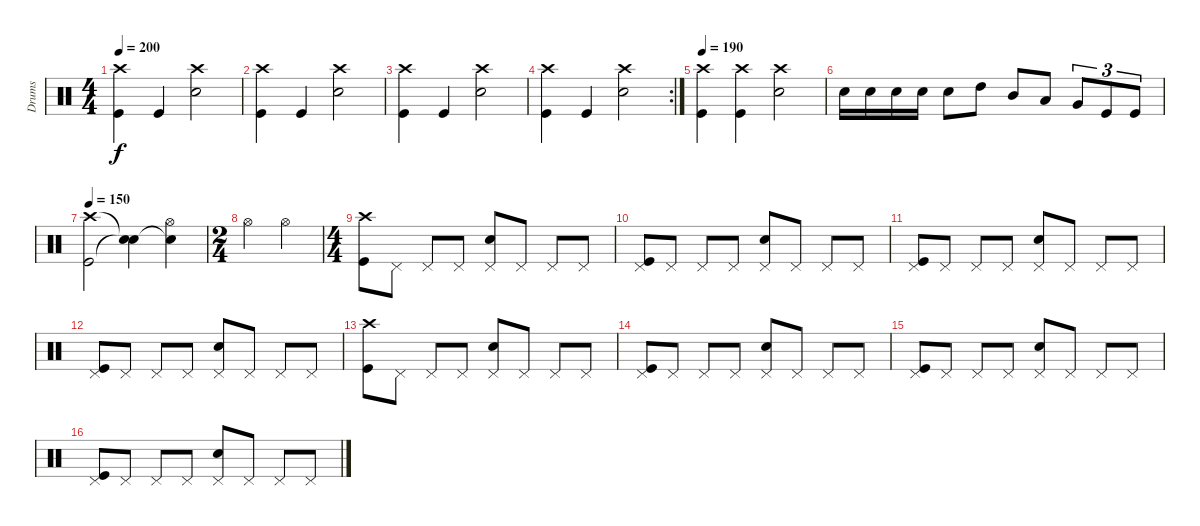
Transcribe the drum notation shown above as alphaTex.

\track ("Drums" "Drums") {instrument percussion}
\staff {score}
\articulation defaults
\ts (4 4)
\tempo 200
\clef neutral
\ks c
("Crash high (hit)" "Kick (hit)").4{dy f} "Kick (hit)".4 ("Crash high (hit)" "Snare (hit) 2").2 |
("Crash high (hit)" "Kick (hit)").4 "Kick (hit)".4 ("Crash high (hit)" "Snare (hit) 2").2 |
("Crash high (hit)" "Kick (hit)").4 "Kick (hit)".4 ("Crash high (hit)" "Snare (hit) 2").2 |
\rc 2
("Crash high (hit)" "Kick (hit)").4 "Kick (hit)".4 ("Crash high (hit)" "Snare (hit) 2").2 |
\tempo 190
("Crash high (hit)" "Kick (hit)").4 ("Crash high (hit)" "Kick (hit)").4 ("Crash high (hit)" "Snare (hit) 2").2 |
"Snare (hit) 2".16 "Snare (hit) 2".16 "Snare (hit) 2".16 "Snare (hit) 2".16 "Snare (hit) 2".8 "High Tom (hit)".8 "Mid Tom (hit)".8 "Low Tom (hit)".8 "Very Low Tom (hit)".8{tu (3 2)} "Kick (hit)".8{tu (3 2)} "Kick (hit)".8{tu (3 2)} |
\tempo 150
("Crash high (hit)" "Kick (hit)").2 ("Snare (hit)"{t} "Snare (hit)"{t}).4 ("Hi-Hat (open)" "Snare (hit)"{t}).4 |
\ts (2 4)
"Hi-Hat (open)".4 "Hi-Hat (open)".4 |
\ts (4 4)
("Crash high (hit)" "Kick (hit)").8 "Pedal Hi-Hat (hit)".8 "Pedal Hi-Hat (hit)".8 "Pedal Hi-Hat (hit)".8 ("Pedal Hi-Hat (hit)" "Snare (hit) 2").8 "Pedal Hi-Hat (hit)".8 "Pedal Hi-Hat (hit)".8 "Pedal Hi-Hat (hit)".8 |
("Pedal Hi-Hat (hit)" "Kick (hit)").8 "Pedal Hi-Hat (hit)".8 "Pedal Hi-Hat (hit)".8 "Pedal Hi-Hat (hit)".8 ("Pedal Hi-Hat (hit)" "Snare (hit) 2").8 "Pedal Hi-Hat (hit)".8 "Pedal Hi-Hat (hit)".8 "Pedal Hi-Hat (hit)".8 |
("Pedal Hi-Hat (hit)" "Kick (hit)").8 "Pedal Hi-Hat (hit)".8 "Pedal Hi-Hat (hit)".8 "Pedal Hi-Hat (hit)".8 ("Pedal Hi-Hat (hit)" "Snare (hit) 2").8 "Pedal Hi-Hat (hit)".8 "Pedal Hi-Hat (hit)".8 "Pedal Hi-Hat (hit)".8 |
("Pedal Hi-Hat (hit)" "Kick (hit)").8 "Pedal Hi-Hat (hit)".8 "Pedal Hi-Hat (hit)".8 "Pedal Hi-Hat (hit)".8 ("Pedal Hi-Hat (hit)" "Snare (hit) 2").8 "Pedal Hi-Hat (hit)".8 "Pedal Hi-Hat (hit)".8 "Pedal Hi-Hat (hit)".8 |
("Crash high (hit)" "Kick (hit)").8 "Pedal Hi-Hat (hit)".8 "Pedal Hi-Hat (hit)".8 "Pedal Hi-Hat (hit)".8 ("Pedal Hi-Hat (hit)" "Snare (hit) 2").8 "Pedal Hi-Hat (hit)".8 "Pedal Hi-Hat (hit)".8 "Pedal Hi-Hat (hit)".8 |
("Pedal Hi-Hat (hit)" "Kick (hit)").8 "Pedal Hi-Hat (hit)".8 "Pedal Hi-Hat (hit)".8 "Pedal Hi-Hat (hit)".8 ("Pedal Hi-Hat (hit)" "Snare (hit) 2").8 "Pedal Hi-Hat (hit)".8 "Pedal Hi-Hat (hit)".8 "Pedal Hi-Hat (hit)".8 |
("Pedal Hi-Hat (hit)" "Kick (hit)").8 "Pedal Hi-Hat (hit)".8 "Pedal Hi-Hat (hit)".8 "Pedal Hi-Hat (hit)".8 ("Pedal Hi-Hat (hit)" "Snare (hit) 2").8 "Pedal Hi-Hat (hit)".8 "Pedal Hi-Hat (hit)".8 "Pedal Hi-Hat (hit)".8 |
("Pedal Hi-Hat (hit)" "Kick (hit)").8 "Pedal Hi-Hat (hit)".8 "Pedal Hi-Hat (hit)".8 "Pedal Hi-Hat (hit)".8 ("Pedal Hi-Hat (hit)" "Snare (hit) 2").8 "Pedal Hi-Hat (hit)".8 "Pedal Hi-Hat (hit)".8 "Pedal Hi-Hat (hit)".8
